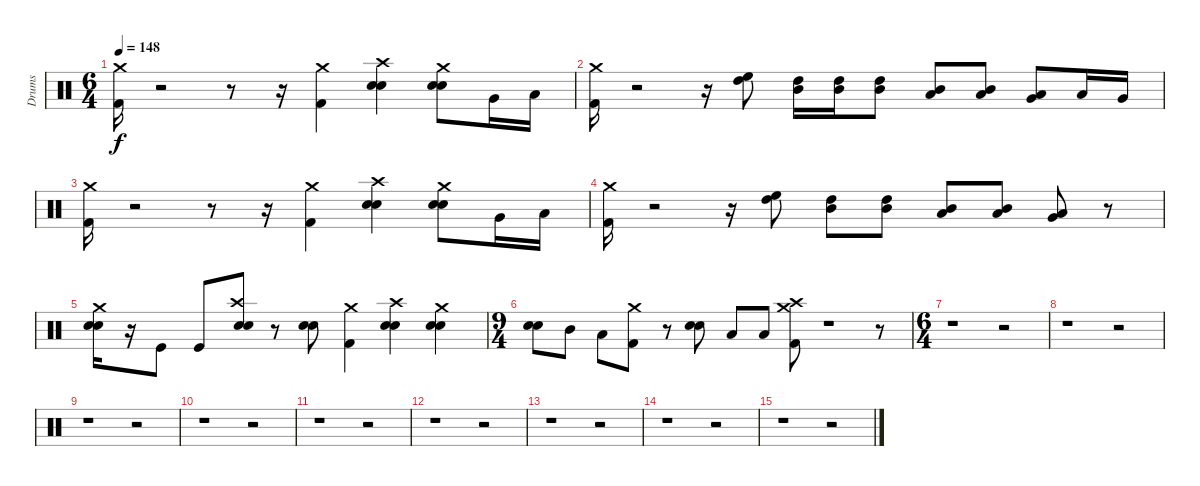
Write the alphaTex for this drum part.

\track ("Drums" "Drums") {instrument percussion}
\staff {score}
\articulation defaults
\ts (6 4)
\tempo 148
\clef neutral
\ks c
("Crash medium (hit)" "Kick (hit) 2").16{dy f} r.2 r.8 r.16 ("Crash medium (hit)" "Kick (hit) 2").4 ("Electric Snare (hit)" "Crash high (hit)" "Snare (hit) 2").4 ("Electric Snare (hit)" "Crash medium (hit)" "Snare (hit) 2").8 "Very Low Tom (hit)".16 "Low Floor Tom (hit)".16 |
("Crash medium (hit)" "Kick (hit) 2").16 r.2 r.16 ("High Tom (hit)" "High Floor Tom (hit)").8 ("Mid Tom (hit)" "High Tom (hit)").16 ("Mid Tom (hit)" "High Tom (hit)").16 ("High Tom (hit)" "Mid Tom (hit)").8 ("Mid Tom (hit)" "Low Tom (hit)").8 ("Mid Tom (hit)" "Low Tom (hit)").8 ("Low Tom (hit)" "Very Low Tom (hit)").8 "Low Tom (hit)".16 "Very Low Tom (hit)".16 |
("Crash medium (hit)" "Kick (hit) 2").16 r.2 r.8 r.16 ("Kick (hit) 2" "Crash medium (hit)").4 ("Snare (hit) 2" "Electric Snare (hit)" "Crash high (hit)").4 ("Snare (hit) 2" "Electric Snare (hit)" "Crash medium (hit)").8 "Very Low Tom (hit)".16 "Low Floor Tom (hit)".16 |
("Crash medium (hit)" "Kick (hit) 2").16 r.2 r.16 ("High Floor Tom (hit)" "High Tom (hit)").8 ("Mid Tom (hit)" "High Tom (hit)").8 ("High Tom (hit)" "Mid Tom (hit)").8 ("Low Tom (hit)" "Mid Tom (hit)").8 ("Mid Tom (hit)" "Low Tom (hit)").8 ("Very Low Tom (hit)" "Low Tom (hit)").8 r.8 |
("Snare (hit) 2" "Crash medium (hit)" "Electric Snare (hit)").16 r.16 "Kick (hit)".8 "Kick (hit)".8 ("Crash high (hit)" "Electric Snare (hit)" "Snare (hit) 2").8 r.8 ("Electric Snare (hit)" "Snare (hit) 2").8 ("Crash medium (hit)" "Kick (hit) 2").4 ("Electric Snare (hit)" "Crash high (hit)" "Snare (hit) 2").4 ("Electric Snare (hit)" "Crash medium (hit)" "Snare (hit) 2").4 |
\ts (9 4)
("Snare (hit) 2" "Electric Snare (hit)").8 "Mid Tom (hit)".8 "Low Tom (hit)".8 ("Crash medium (hit)" "Kick (hit) 2").8 r.8 ("Snare (hit) 2" "Electric Snare (hit)").8 "Low Tom (hit)".8 "Low Floor Tom (hit)".8 ("Crash high (hit)" "Crash medium (hit)" "Kick (hit) 2").8 r.1 r.8 |
\ts (6 4)
r.1 r.2 |
r.1 r.2 |
r.1 r.2 |
r.1 r.2 |
r.1 r.2 |
r.1 r.2 |
r.1 r.2 |
r.1 r.2 |
r.1 r.2
